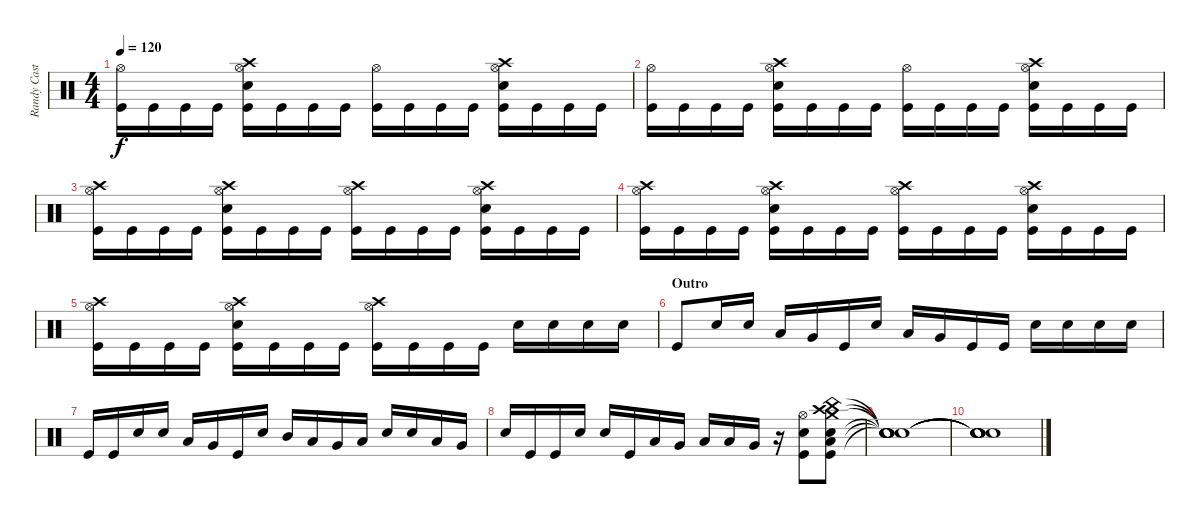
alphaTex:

\track ("Randy Castiello (Dums)" "Randy Cast") {instrument percussion}
\staff {score}
\articulation defaults
\ts (4 4)
\tempo 120
\clef neutral
\ks c
("Hi-Hat (open)" "Kick (hit)").16{dy f} "Kick (hit)".16 "Kick (hit)".16 "Kick (hit)".16 ("Hi-Hat (open)" "Crash high (hit)" "Snare (hit) 2" "Kick (hit)").16 "Kick (hit)".16 "Kick (hit)".16 "Kick (hit)".16 ("Hi-Hat (open)" "Kick (hit)").16 "Kick (hit)".16 "Kick (hit)".16 "Kick (hit)".16 ("Hi-Hat (open)" "Crash high (hit)" "Snare (hit) 2" "Kick (hit)").16 "Kick (hit)".16 "Kick (hit)".16 "Kick (hit)".16 |
("Hi-Hat (open)" "Kick (hit)").16 "Kick (hit)".16 "Kick (hit)".16 "Kick (hit)".16 ("Hi-Hat (open)" "Crash high (hit)" "Snare (hit) 2" "Kick (hit)").16 "Kick (hit)".16 "Kick (hit)".16 "Kick (hit)".16 ("Hi-Hat (open)" "Kick (hit)").16 "Kick (hit)".16 "Kick (hit)".16 "Kick (hit)".16 ("Hi-Hat (open)" "Crash high (hit)" "Snare (hit) 2" "Kick (hit)").16 "Kick (hit)".16 "Kick (hit)".16 "Kick (hit)".16 |
("Hi-Hat (open)" "Crash high (hit)" "Kick (hit)").16 "Kick (hit)".16 "Kick (hit)".16 "Kick (hit)".16 ("Hi-Hat (open)" "Crash high (hit)" "Snare (hit) 2" "Kick (hit)").16 "Kick (hit)".16 "Kick (hit)".16 "Kick (hit)".16 ("Hi-Hat (open)" "Crash high (hit)" "Kick (hit)").16 "Kick (hit)".16 "Kick (hit)".16 "Kick (hit)".16 ("Hi-Hat (open)" "Crash high (hit)" "Snare (hit) 2" "Kick (hit)").16 "Kick (hit)".16 "Kick (hit)".16 "Kick (hit)".16 |
("Hi-Hat (open)" "Crash high (hit)" "Kick (hit)").16 "Kick (hit)".16 "Kick (hit)".16 "Kick (hit)".16 ("Hi-Hat (open)" "Crash high (hit)" "Snare (hit) 2" "Kick (hit)").16 "Kick (hit)".16 "Kick (hit)".16 "Kick (hit)".16 ("Hi-Hat (open)" "Crash high (hit)" "Kick (hit)").16 "Kick (hit)".16 "Kick (hit)".16 "Kick (hit)".16 ("Hi-Hat (open)" "Crash high (hit)" "Snare (hit) 2" "Kick (hit)").16 "Kick (hit)".16 "Kick (hit)".16 "Kick (hit)".16 |
("Hi-Hat (open)" "Crash high (hit)" "Kick (hit)").16 "Kick (hit)".16 "Kick (hit)".16 "Kick (hit)".16 ("Hi-Hat (open)" "Crash high (hit)" "Snare (hit) 2" "Kick (hit)").16 "Kick (hit)".16 "Kick (hit)".16 "Kick (hit)".16 ("Hi-Hat (open)" "Crash high (hit)" "Kick (hit)").16 "Kick (hit)".16 "Kick (hit)".16 "Kick (hit)".16 "Snare (hit) 2".16 "Snare (hit) 2".16 "Snare (hit) 2".16 "Snare (hit) 2".16 |
\section ("" "Outro")
"Kick (hit)".8 "Snare (hit) 2".16 "Snare (hit) 2".16 "Low Tom (hit)".16 "Very Low Tom (hit)".16 "Kick (hit)".16 "Snare (hit) 2".16 "Low Tom (hit)".16 "Very Low Tom (hit)".16 "Kick (hit)".16 "Kick (hit)".16 "Snare (hit) 2".16 "Snare (hit) 2".16 "Snare (hit) 2".16 "Snare (hit) 2".16 |
"Kick (hit)".16 "Kick (hit)".16 "Snare (hit) 2".16 "Snare (hit) 2".16 "Low Tom (hit)".16 "Very Low Tom (hit)".16 "Kick (hit)".16 "Snare (hit) 2".16 "Mid Tom (hit)".16 "Low Tom (hit)".16 "Very Low Tom (hit)".16 "Low Floor Tom (hit)".16 "Snare (hit) 2".16 "Snare (hit) 2".16 "Low Tom (hit)".16 "Very Low Tom (hit)".16 |
"Snare (hit) 2".16 "Kick (hit)".16 "Kick (hit)".16 "Snare (hit) 2".16 "Snare (hit) 2".16 "Kick (hit)".16 "Low Tom (hit)".16 "Very Low Tom (hit)".16 "Low Floor Tom (hit)".16 "Low Tom (hit)".16 "Very Low Tom (hit)".16 r.16 ("Hi-Hat (open)" "Snare (hit) 2" "Kick (hit)").8 ("Crash high (hit)" "Crash medium (hit)" "China (hit)" "Snare (hit) 2" "Low Floor Tom (hit)" "Kick (hit)").8 |
("Snare (hit)"{t} "Snare (hit)"{t} "Snare (hit)"{t} "Snare (hit)"{t} "Snare (hit)"{t} "Snare (hit)"{t}).1 |
("Snare (hit)"{t} "Snare (hit)"{t} "Snare (hit)"{t} "Snare (hit)"{t} "Snare (hit)"{t} "Snare (hit)"{t}).1
